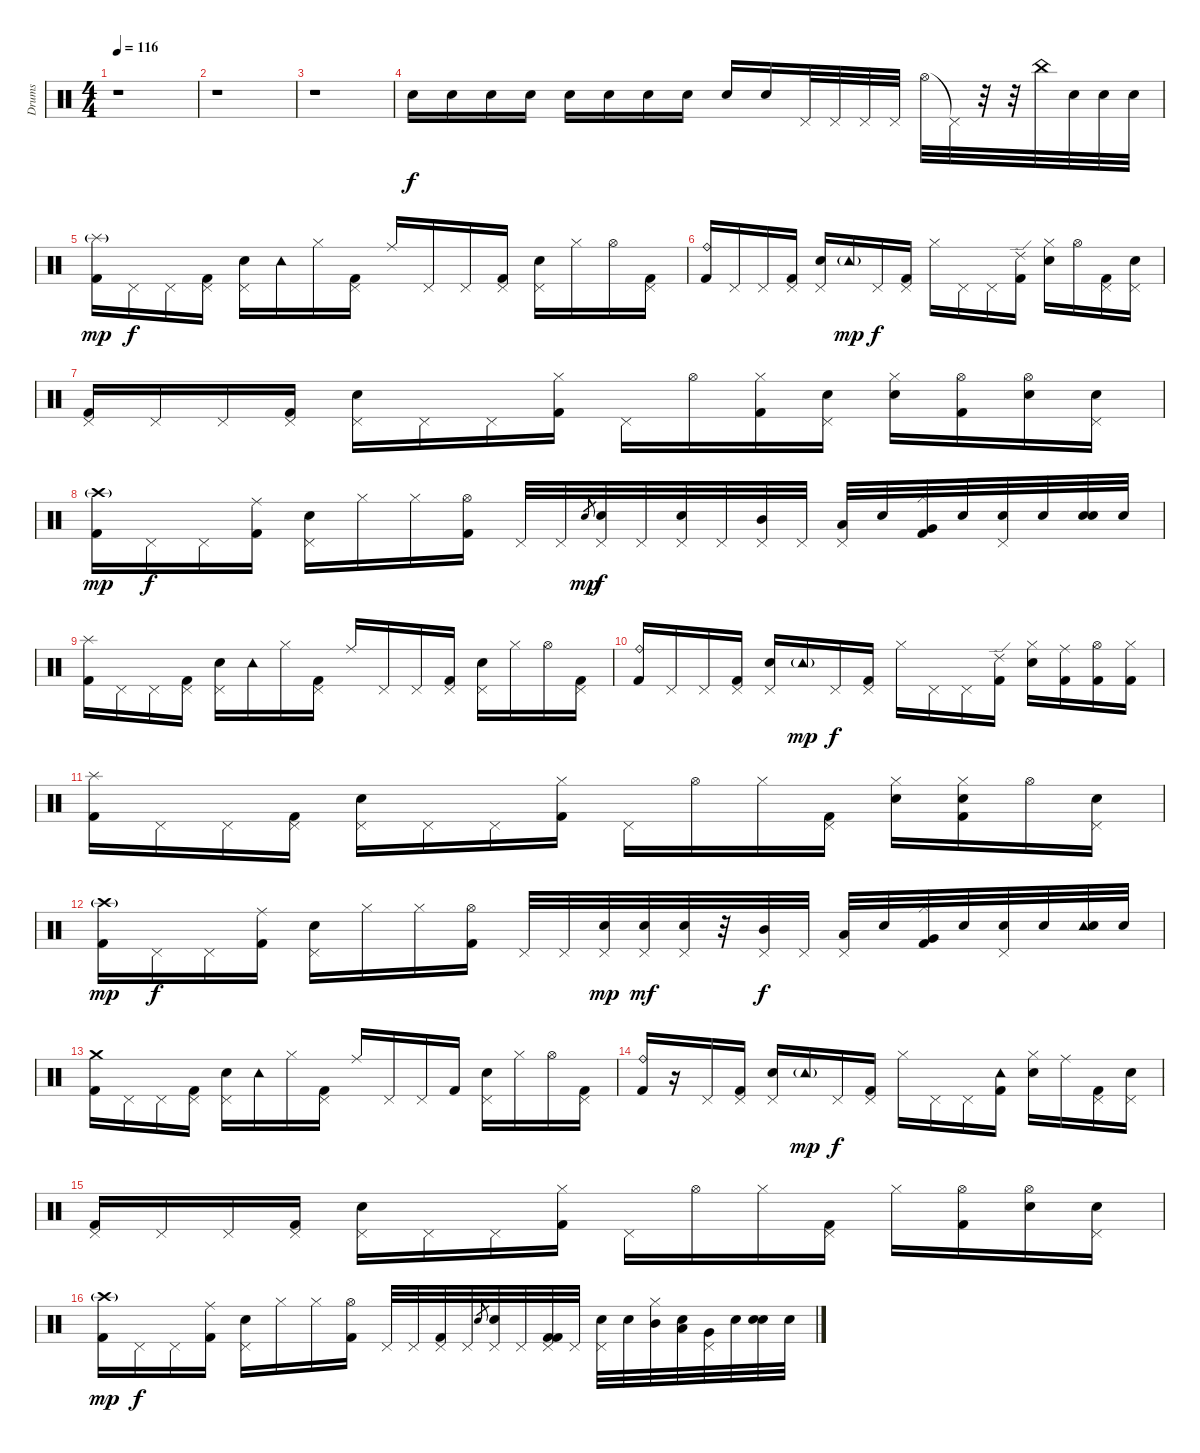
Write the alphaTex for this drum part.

\track ("Drums" "Drums") {instrument percussion}
\staff {score}
\articulation defaults
\ts (4 4)
\tempo 116
\clef neutral
\ks c
r.1{dy f} |
r.1 |
r.1 |
"Snare (hit)"{x}.16 "Snare (hit)"{x}.16 "Snare (hit)"{x}.16 "Snare (hit)"{x}.16 "Snare (hit)"{x}.16 "Snare (hit)"{x}.16 "Snare (hit)"{x}.16 "Snare (hit)"{x}.16 "Snare (hit)"{x}.16 "Snare (hit)"{x}.16 "Pedal Hi-Hat (hit)".32 "Pedal Hi-Hat (hit)".32 "Pedal Hi-Hat (hit)".32 "Pedal Hi-Hat (hit)".32 "Hi-Hat (open)".32 "Pedal Hi-Hat (hit)"{t}.32 r.32 r.32 "China (hit)".32 "Snare (hit)"{x}.32 "Snare (hit)"{x}.32 "Snare (hit)"{x}.32 |
("Splash (hit)"{g} "Kick (hit) 2").16{dy mp} "Pedal Hi-Hat (hit)"{x}.16{dy f} "Pedal Hi-Hat (hit)".16 ("Pedal Hi-Hat (hit)"{x} "Kick (hit) 2").16 ("Pedal Hi-Hat (hit)" "Electric Snare (hit)").16 "Tambourine (hit)"{x}.16 "Hi-Hat (closed)".16 ("Pedal Hi-Hat (hit)" "Kick (hit) 2").16 "Ride (middle)".16 "Pedal Hi-Hat (hit)".16 "Pedal Hi-Hat (hit)".16 ("Pedal Hi-Hat (hit)"{x} "Kick (hit) 2").16 ("Pedal Hi-Hat (hit)" "Electric Snare (hit)").16 "Hi-Hat (closed)".16 "Hi-Hat (open)".16 ("Pedal Hi-Hat (hit)"{x} "Kick (hit) 2").16 |
("Ride (bell)" "Kick (hit) 2").16 "Pedal Hi-Hat (hit)"{x}.16 "Pedal Hi-Hat (hit)".16 ("Pedal Hi-Hat (hit)"{x} "Kick (hit) 2").16 ("Pedal Hi-Hat (hit)" "Electric Snare (hit)").16 "Tambourine (hit)"{g}.16{dy mp} "Pedal Hi-Hat (hit)".16{dy f} ("Pedal Hi-Hat (hit)" "Kick (hit) 2").16 "Hi-Hat (closed)".16 "Pedal Hi-Hat (hit)".16 "Pedal Hi-Hat (hit)".16 ("Ride (edge) 2"{x} "Kick (hit) 2").16 ("Hi-Hat (closed)" "Electric Snare (hit)").16 "Hi-Hat (open)".16 ("Pedal Hi-Hat (hit)" "Kick (hit) 2").16 ("Pedal Hi-Hat (hit)"{x} "Electric Snare (hit)").16 |
("Pedal Hi-Hat (hit)" "Kick (hit) 2").16 "Pedal Hi-Hat (hit)"{x}.16 "Pedal Hi-Hat (hit)".16 ("Pedal Hi-Hat (hit)"{x} "Kick (hit) 2").16 ("Pedal Hi-Hat (hit)" "Electric Snare (hit)").16 "Pedal Hi-Hat (hit)"{x}.16 "Pedal Hi-Hat (hit)".16 ("Hi-Hat (closed)" "Kick (hit) 2").16 "Pedal Hi-Hat (hit)".16 "Hi-Hat (open)".16 ("Hi-Hat (closed)" "Kick (hit) 2").16 ("Pedal Hi-Hat (hit)" "Electric Snare (hit)").16 ("Hi-Hat (closed)" "Electric Snare (hit)").16 ("Hi-Hat (open)" "Kick (hit) 2").16 ("Hi-Hat (open)"{x} "Electric Snare (hit)").16 ("Pedal Hi-Hat (hit)" "Electric Snare (hit)").16 |
("Crash high (hit)"{g} "Kick (hit) 2").16{dy mp} "Pedal Hi-Hat (hit)"{x}.16{dy f} "Pedal Hi-Hat (hit)".16 ("Ride (middle)" "Kick (hit) 2").16 ("Pedal Hi-Hat (hit)" "Electric Snare (hit)").16 "Hi-Hat (closed)".16 "Hi-Hat (closed)".16 ("Hi-Hat (open)" "Kick (hit) 2").16 "Pedal Hi-Hat (hit)".32 "Pedal Hi-Hat (hit)"{x}.32 "Electric Snare (hit)".8{gr dy mp} ("Pedal Hi-Hat (hit)"{x} "Electric Snare (hit)").32{dy f} "Pedal Hi-Hat (hit)"{x}.32 ("Pedal Hi-Hat (hit)" "Electric Snare (hit)").32 "Pedal Hi-Hat (hit)"{x}.32 ("Pedal Hi-Hat (hit)"{x} "Mid Tom (hit)").32 "Pedal Hi-Hat (hit)"{x}.32 ("Pedal Hi-Hat (hit)" "Low Tom (hit)").32 "Snare (hit)"{x}.32 ("Hi-Hat (closed)" "Very Low Tom (hit)" "Kick (hit) 2").32 "Snare (hit)"{x}.32 ("Pedal Hi-Hat (hit)" "Electric Snare (hit)").32 "Snare (hit)"{x}.32 ("Snare (hit)"{x} "Electric Snare (hit)").32 "Snare (hit)"{x}.32 |
("Splash (hit)" "Kick (hit) 2").16 "Pedal Hi-Hat (hit)"{x}.16 "Pedal Hi-Hat (hit)".16 ("Pedal Hi-Hat (hit)"{x} "Kick (hit) 2").16 ("Pedal Hi-Hat (hit)" "Electric Snare (hit)").16 "Tambourine (hit)"{x}.16 "Hi-Hat (closed)".16 ("Pedal Hi-Hat (hit)" "Kick (hit) 2").16 "Ride (middle)".16 "Pedal Hi-Hat (hit)".16 "Pedal Hi-Hat (hit)".16 ("Pedal Hi-Hat (hit)"{x} "Kick (hit) 2").16 ("Pedal Hi-Hat (hit)" "Electric Snare (hit)").16 "Hi-Hat (closed)".16 "Hi-Hat (open)".16 ("Pedal Hi-Hat (hit)"{x} "Kick (hit) 2").16 |
("Ride (bell)" "Kick (hit) 2").16 "Pedal Hi-Hat (hit)"{x}.16 "Pedal Hi-Hat (hit)".16 ("Pedal Hi-Hat (hit)"{x} "Kick (hit) 2").16 ("Pedal Hi-Hat (hit)" "Electric Snare (hit)").16 "Tambourine (hit)"{g}.16{dy mp} "Pedal Hi-Hat (hit)".16{dy f} ("Pedal Hi-Hat (hit)" "Kick (hit) 2").16 "Hi-Hat (closed)".16 "Pedal Hi-Hat (hit)".16 "Pedal Hi-Hat (hit)".16 ("Ride (edge) 2"{x} "Kick (hit) 2").16 ("Hi-Hat (closed)" "Electric Snare (hit)").16 ("Ride (middle)" "Kick (hit) 2").16 ("Hi-Hat (open)" "Kick (hit) 2").16 ("Hi-Hat (closed)" "Kick (hit) 2").16 |
("Splash (hit)" "Kick (hit) 2").16 "Pedal Hi-Hat (hit)"{x}.16 "Pedal Hi-Hat (hit)".16 ("Pedal Hi-Hat (hit)"{x} "Kick (hit) 2").16 ("Pedal Hi-Hat (hit)" "Electric Snare (hit)").16 "Pedal Hi-Hat (hit)"{x}.16 "Pedal Hi-Hat (hit)".16 ("Hi-Hat (closed)" "Kick (hit) 2").16 "Pedal Hi-Hat (hit)".16 "Hi-Hat (open)".16 "Hi-Hat (closed)".16 ("Pedal Hi-Hat (hit)" "Kick (hit) 2").16 ("Hi-Hat (closed)" "Electric Snare (hit)").16 ("Hi-Hat (closed)" "Electric Snare (hit)" "Kick (hit) 2").16 "Hi-Hat (open)".16 ("Pedal Hi-Hat (hit)" "Electric Snare (hit)").16 |
("Crash high (hit)"{g} "Kick (hit) 2").16{dy mp} "Pedal Hi-Hat (hit)"{x}.16{dy f} "Pedal Hi-Hat (hit)".16 ("Ride (middle)" "Kick (hit) 2").16 ("Pedal Hi-Hat (hit)" "Electric Snare (hit)").16 "Hi-Hat (closed)".16 "Hi-Hat (closed)".16 ("Hi-Hat (open)" "Kick (hit) 2").16 "Pedal Hi-Hat (hit)".32 "Pedal Hi-Hat (hit)"{x}.32 ("Pedal Hi-Hat (hit)"{x} "Electric Snare (hit)").32{dy mp} ("Pedal Hi-Hat (hit)"{x} "Electric Snare (hit)").32{dy mf} ("Pedal Hi-Hat (hit)" "Electric Snare (hit)").32 r.32 ("Pedal Hi-Hat (hit)"{x} "Mid Tom (hit)").32{dy f} "Pedal Hi-Hat (hit)"{x}.32 ("Pedal Hi-Hat (hit)" "Low Tom (hit)").32 "Snare (hit)"{x}.32 ("Hi-Hat (closed)" "Very Low Tom (hit)" "Kick (hit) 2").32 "Snare (hit)"{x}.32 ("Pedal Hi-Hat (hit)" "Electric Snare (hit)").32 "Snare (hit)"{x}.32 ("Tambourine (hit)" "Electric Snare (hit)").32 "Snare (hit)"{x}.32 |
("Crash medium (hit)" "Kick (hit) 2").16 "Pedal Hi-Hat (hit)"{x}.16 "Pedal Hi-Hat (hit)".16 ("Pedal Hi-Hat (hit)"{x} "Kick (hit) 2").16 ("Pedal Hi-Hat (hit)" "Electric Snare (hit)").16 "Tambourine (hit)"{x}.16 "Hi-Hat (closed)".16 ("Pedal Hi-Hat (hit)" "Kick (hit) 2").16 "Ride (middle)".16 "Pedal Hi-Hat (hit)".16 "Pedal Hi-Hat (hit)".16 "Kick (hit) 2".16 ("Pedal Hi-Hat (hit)" "Electric Snare (hit)").16 "Hi-Hat (closed)".16 "Hi-Hat (open)".16 ("Pedal Hi-Hat (hit)"{x} "Kick (hit) 2").16 |
("Ride (bell)" "Kick (hit) 2").16 r.16 "Pedal Hi-Hat (hit)".16 ("Pedal Hi-Hat (hit)"{x} "Kick (hit) 2").16 ("Pedal Hi-Hat (hit)" "Electric Snare (hit)").16 "Tambourine (hit)"{g}.16{dy mp} "Pedal Hi-Hat (hit)".16{dy f} ("Pedal Hi-Hat (hit)" "Kick (hit) 2").16 "Hi-Hat (closed)".16 "Pedal Hi-Hat (hit)".16 "Pedal Hi-Hat (hit)".16 ("Tambourine (hit)" "Kick (hit) 2").16 ("Hi-Hat (closed)" "Electric Snare (hit)").16 "Ride (middle)".16 ("Pedal Hi-Hat (hit)" "Kick (hit) 2").16 ("Pedal Hi-Hat (hit)"{x} "Electric Snare (hit)").16 |
("Pedal Hi-Hat (hit)" "Kick (hit) 2").16 "Pedal Hi-Hat (hit)"{x}.16 "Pedal Hi-Hat (hit)".16 ("Pedal Hi-Hat (hit)"{x} "Kick (hit) 2").16 ("Pedal Hi-Hat (hit)" "Electric Snare (hit)").16 "Pedal Hi-Hat (hit)"{x}.16 "Pedal Hi-Hat (hit)".16 ("Hi-Hat (closed)" "Kick (hit) 2").16 "Pedal Hi-Hat (hit)".16 "Hi-Hat (open)".16 "Hi-Hat (closed)".16 ("Pedal Hi-Hat (hit)" "Kick (hit) 2").16 "Hi-Hat (closed)".16 ("Hi-Hat (open)" "Kick (hit) 2").16 ("Hi-Hat (open)"{x} "Electric Snare (hit)").16 ("Pedal Hi-Hat (hit)" "Electric Snare (hit)").16 |
("Crash high (hit)"{g} "Kick (hit) 2").16{dy mp} "Pedal Hi-Hat (hit)"{x}.16{dy f} "Pedal Hi-Hat (hit)".16 ("Ride (middle)" "Kick (hit) 2").16 ("Pedal Hi-Hat (hit)" "Electric Snare (hit)").16 "Hi-Hat (closed)".16 "Hi-Hat (closed)".16 ("Hi-Hat (open)" "Kick (hit) 2").16 "Pedal Hi-Hat (hit)".32 "Pedal Hi-Hat (hit)"{x}.32 ("Pedal Hi-Hat (hit)"{x} "Kick (hit) 2").32 "Pedal Hi-Hat (hit)"{x}.32 "Electric Snare (hit)".8{gr} ("Pedal Hi-Hat (hit)" "Electric Snare (hit)").32 "Pedal Hi-Hat (hit)"{x}.32 ("Pedal Hi-Hat (hit)"{x} "Kick (hit) 2" "Kick (hit) 2").32 "Pedal Hi-Hat (hit)"{x}.32 ("Pedal Hi-Hat (hit)" "Electric Snare (hit)").32 "Snare (hit)"{x}.32 ("Hi-Hat (closed)" "Mid Tom (hit)").32 ("Snare (hit)"{x} "Low Tom (hit)").32 ("Pedal Hi-Hat (hit)" "Very Low Tom (hit)").32 "Snare (hit)"{x}.32 ("Snare (hit)"{x} "Electric Snare (hit)").32 "Snare (hit)"{x}.32
